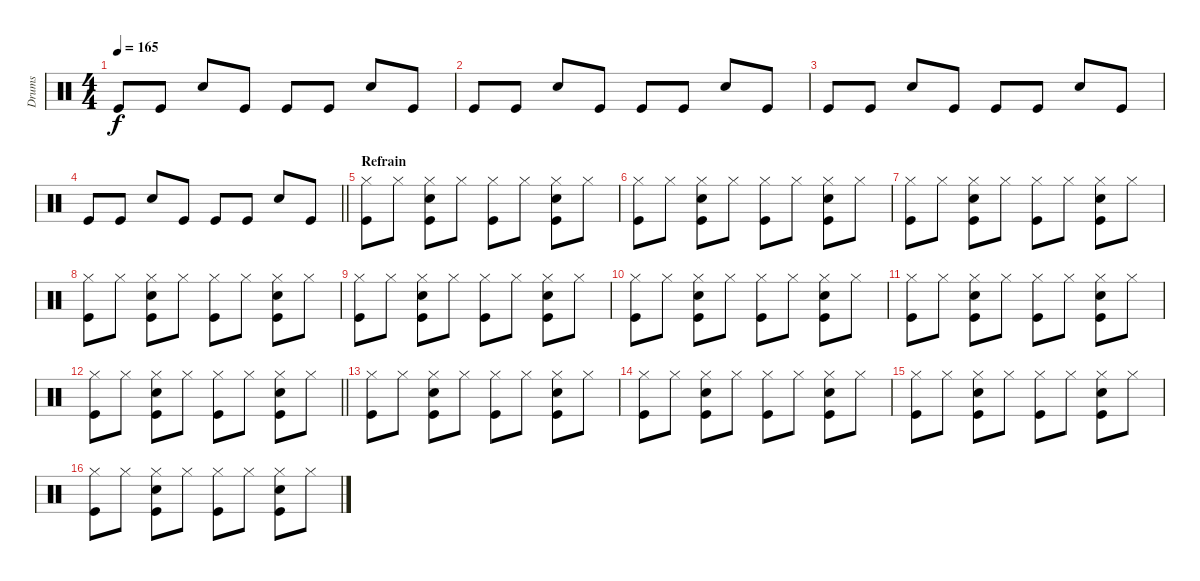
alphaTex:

\track ("Drums" "Drums") {instrument percussion}
\staff {score}
\articulation defaults
\ts (4 4)
\tempo 165
\clef neutral
\ks c "Kick (hit)".8{dy f} "Kick (hit)".8 "Snare (hit) 2".8 "Kick (hit)".8 "Kick (hit)".8 "Kick (hit)".8 "Snare (hit) 2".8 "Kick (hit)".8
|
"Kick (hit)".8 "Kick (hit)".8 "Snare (hit) 2".8 "Kick (hit)".8 "Kick (hit)".8 "Kick (hit)".8 "Snare (hit) 2".8 "Kick (hit)".8 |
"Kick (hit)".8 "Kick (hit)".8 "Snare (hit) 2".8 "Kick (hit)".8 "Kick (hit)".8 "Kick (hit)".8 "Snare (hit) 2".8 "Kick (hit)".8 |
\barLineRight lightlight "Kick (hit)".8 "Kick (hit)".8 "Snare (hit) 2".8 "Kick (hit)".8 "Kick (hit)".8 "Kick (hit)".8 "Snare (hit) 2".8 "Kick (hit)".8
|
\section ("" "Refrain")
("Hi-Hat (closed)" "Kick (hit)").8 "Hi-Hat (closed)".8 ("Hi-Hat (closed)" "Kick (hit)" "Snare (hit) 2").8 "Hi-Hat (closed)".8 ("Hi-Hat (closed)" "Kick (hit)").8 "Hi-Hat (closed)".8 ("Hi-Hat (closed)" "Kick (hit)" "Snare (hit) 2").8 "Hi-Hat (closed)".8 |
("Hi-Hat (closed)" "Kick (hit)").8 "Hi-Hat (closed)".8 ("Hi-Hat (closed)" "Kick (hit)" "Snare (hit) 2").8 "Hi-Hat (closed)".8 ("Hi-Hat (closed)" "Kick (hit)").8 "Hi-Hat (closed)".8 ("Hi-Hat (closed)" "Kick (hit)" "Snare (hit) 2").8 "Hi-Hat (closed)".8 |
("Hi-Hat (closed)" "Kick (hit)").8 "Hi-Hat (closed)".8 ("Hi-Hat (closed)" "Kick (hit)" "Snare (hit) 2").8 "Hi-Hat (closed)".8 ("Hi-Hat (closed)" "Kick (hit)").8 "Hi-Hat (closed)".8 ("Hi-Hat (closed)" "Kick (hit)" "Snare (hit) 2").8 "Hi-Hat (closed)".8 |
("Hi-Hat (closed)" "Kick (hit)").8 "Hi-Hat (closed)".8 ("Hi-Hat (closed)" "Kick (hit)" "Snare (hit) 2").8 "Hi-Hat (closed)".8 ("Hi-Hat (closed)" "Kick (hit)").8 "Hi-Hat (closed)".8 ("Hi-Hat (closed)" "Kick (hit)" "Snare (hit) 2").8 "Hi-Hat (closed)".8 |
("Hi-Hat (closed)" "Kick (hit)").8 "Hi-Hat (closed)".8 ("Hi-Hat (closed)" "Kick (hit)" "Snare (hit) 2").8 "Hi-Hat (closed)".8 ("Hi-Hat (closed)" "Kick (hit)").8 "Hi-Hat (closed)".8 ("Hi-Hat (closed)" "Kick (hit)" "Snare (hit) 2").8 "Hi-Hat (closed)".8 |
("Hi-Hat (closed)" "Kick (hit)").8 "Hi-Hat (closed)".8 ("Hi-Hat (closed)" "Kick (hit)" "Snare (hit) 2").8 "Hi-Hat (closed)".8 ("Hi-Hat (closed)" "Kick (hit)").8 "Hi-Hat (closed)".8 ("Hi-Hat (closed)" "Kick (hit)" "Snare (hit) 2").8 "Hi-Hat (closed)".8 |
("Hi-Hat (closed)" "Kick (hit)").8 "Hi-Hat (closed)".8 ("Hi-Hat (closed)" "Kick (hit)" "Snare (hit) 2").8 "Hi-Hat (closed)".8 ("Hi-Hat (closed)" "Kick (hit)").8 "Hi-Hat (closed)".8 ("Hi-Hat (closed)" "Kick (hit)" "Snare (hit) 2").8 "Hi-Hat (closed)".8 |
\barLineRight lightlight
("Hi-Hat (closed)" "Kick (hit)").8 "Hi-Hat (closed)".8 ("Hi-Hat (closed)" "Kick (hit)" "Snare (hit) 2").8 "Hi-Hat (closed)".8 ("Hi-Hat (closed)" "Kick (hit)").8 "Hi-Hat (closed)".8 ("Hi-Hat (closed)" "Kick (hit)" "Snare (hit) 2").8 "Hi-Hat (closed)".8 |
("Hi-Hat (closed)" "Kick (hit)").8 "Hi-Hat (closed)".8 ("Hi-Hat (closed)" "Kick (hit)" "Snare (hit) 2").8 "Hi-Hat (closed)".8 ("Hi-Hat (closed)" "Kick (hit)").8 "Hi-Hat (closed)".8 ("Hi-Hat (closed)" "Kick (hit)" "Snare (hit) 2").8 "Hi-Hat (closed)".8 |
("Hi-Hat (closed)" "Kick (hit)").8 "Hi-Hat (closed)".8 ("Hi-Hat (closed)" "Kick (hit)" "Snare (hit) 2").8 "Hi-Hat (closed)".8 ("Hi-Hat (closed)" "Kick (hit)").8 "Hi-Hat (closed)".8 ("Hi-Hat (closed)" "Kick (hit)" "Snare (hit) 2").8 "Hi-Hat (closed)".8 |
("Hi-Hat (closed)" "Kick (hit)").8 "Hi-Hat (closed)".8 ("Hi-Hat (closed)" "Kick (hit)" "Snare (hit) 2").8 "Hi-Hat (closed)".8 ("Hi-Hat (closed)" "Kick (hit)").8 "Hi-Hat (closed)".8 ("Hi-Hat (closed)" "Kick (hit)" "Snare (hit) 2").8 "Hi-Hat (closed)".8 |
("Hi-Hat (closed)" "Kick (hit)").8 "Hi-Hat (closed)".8 ("Hi-Hat (closed)" "Kick (hit)" "Snare (hit) 2").8 "Hi-Hat (closed)".8 ("Hi-Hat (closed)" "Kick (hit)").8 "Hi-Hat (closed)".8 ("Hi-Hat (closed)" "Kick (hit)" "Snare (hit) 2").8 "Hi-Hat (closed)".8
